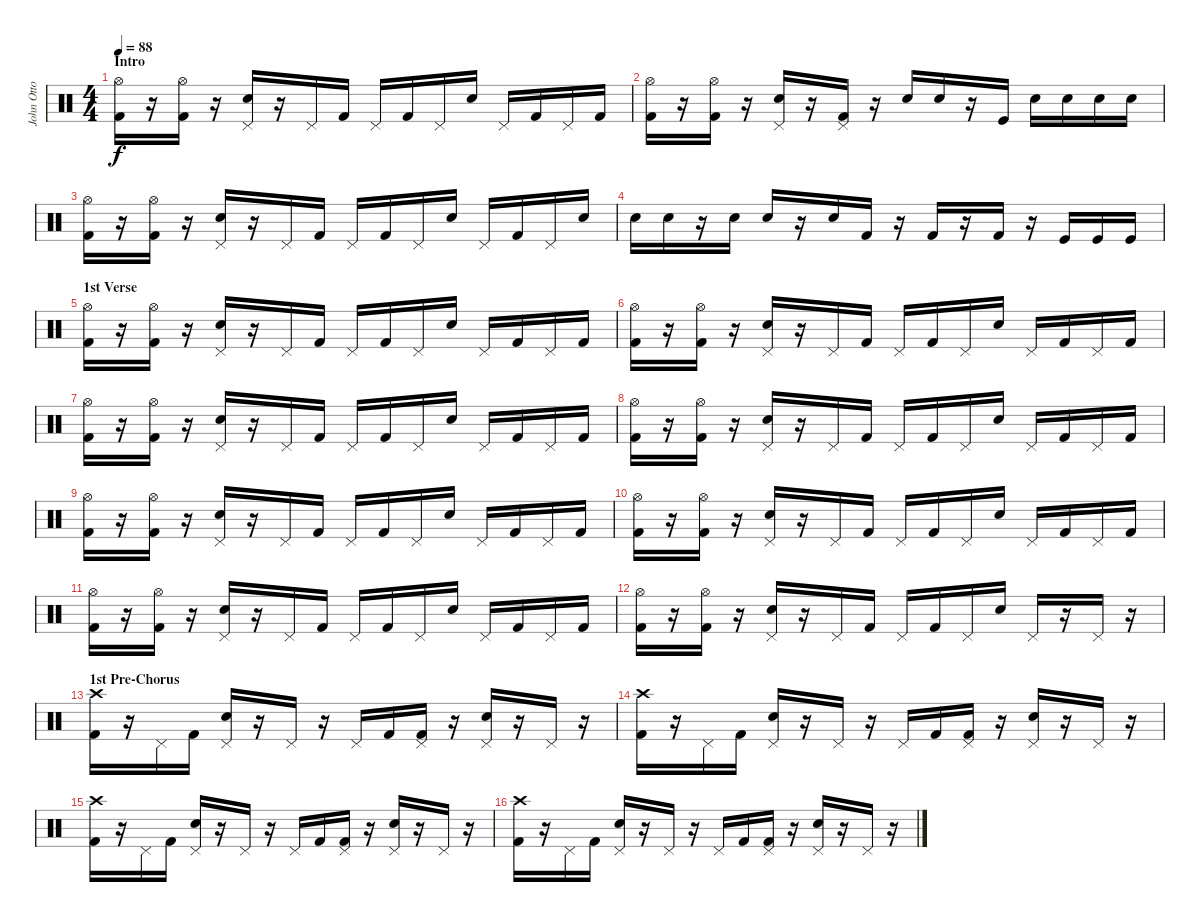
\track ("John Otto" "John Otto") {instrument percussion}
\staff {score}
\articulation defaults
\ts (4 4)
\section ("" "Intro")
\tempo 88
\clef neutral
\ks c
("Hi-Hat (open)" "Kick (hit) 2").16{dy f} r.16 ("Hi-Hat (open)" "Kick (hit) 2").16 r.16 ("Pedal Hi-Hat (hit)" "Snare (hit) 2").16 r.16 "Pedal Hi-Hat (hit)".16 "Kick (hit) 2".16 "Pedal Hi-Hat (hit)".16 "Kick (hit) 2".16 "Pedal Hi-Hat (hit)".16 "Snare (hit) 2".16 "Pedal Hi-Hat (hit)".16 "Kick (hit) 2".16 "Pedal Hi-Hat (hit)".16 "Kick (hit) 2".16 |
("Hi-Hat (open)" "Kick (hit) 2").16 r.16 ("Hi-Hat (open)" "Kick (hit) 2").16 r.16 ("Pedal Hi-Hat (hit)" "Snare (hit) 2").16 r.16 ("Pedal Hi-Hat (hit)" "Kick (hit) 2").16 r.16 "Snare (hit) 2".16 "Snare (hit) 2".16 r.16 "Kick (hit)".16 "Snare (hit) 2".16 "Snare (hit) 2".16 "Electric Snare (hit)".16 "Electric Snare (hit)".16 |
("Hi-Hat (open)" "Kick (hit) 2").16 r.16 ("Hi-Hat (open)" "Kick (hit) 2").16 r.16 ("Pedal Hi-Hat (hit)" "Snare (hit) 2").16 r.16 "Pedal Hi-Hat (hit)".16 "Kick (hit) 2".16 "Pedal Hi-Hat (hit)".16 "Kick (hit) 2".16 "Pedal Hi-Hat (hit)".16 "Snare (hit) 2".16 "Pedal Hi-Hat (hit)".16 "Kick (hit) 2".16 "Pedal Hi-Hat (hit)".16 "Snare (hit) 2".16 |
"Snare (hit) 2".16 "Snare (hit) 2".16 r.16 "Snare (hit) 2".16 "Snare (hit) 2".16 r.16 "Snare (hit) 2".16 "Kick (hit) 2".16 r.16 "Kick (hit) 2".16 r.16 "Kick (hit) 2".16 r.16 "Kick (hit)".16 "Kick (hit)".16 "Kick (hit)".16 |
\section ("" "1st Verse")
("Hi-Hat (open)" "Kick (hit) 2").16 r.16 ("Hi-Hat (open)" "Kick (hit) 2").16 r.16 ("Pedal Hi-Hat (hit)" "Snare (hit) 2").16 r.16 "Pedal Hi-Hat (hit)".16 "Kick (hit) 2".16 "Pedal Hi-Hat (hit)".16 "Kick (hit) 2".16 "Pedal Hi-Hat (hit)".16 "Snare (hit) 2".16 "Pedal Hi-Hat (hit)".16 "Kick (hit) 2".16 "Pedal Hi-Hat (hit)".16 "Kick (hit) 2".16 |
("Hi-Hat (open)" "Kick (hit) 2").16 r.16 ("Hi-Hat (open)" "Kick (hit) 2").16 r.16 ("Pedal Hi-Hat (hit)" "Snare (hit) 2").16 r.16 "Pedal Hi-Hat (hit)".16 "Kick (hit) 2".16 "Pedal Hi-Hat (hit)".16 "Kick (hit) 2".16 "Pedal Hi-Hat (hit)".16 "Snare (hit) 2".16 "Pedal Hi-Hat (hit)".16 "Kick (hit) 2".16 "Pedal Hi-Hat (hit)".16 "Kick (hit) 2".16 |
("Hi-Hat (open)" "Kick (hit) 2").16 r.16 ("Hi-Hat (open)" "Kick (hit) 2").16 r.16 ("Pedal Hi-Hat (hit)" "Snare (hit) 2").16 r.16 "Pedal Hi-Hat (hit)".16 "Kick (hit) 2".16 "Pedal Hi-Hat (hit)".16 "Kick (hit) 2".16 "Pedal Hi-Hat (hit)".16 "Snare (hit) 2".16 "Pedal Hi-Hat (hit)".16 "Kick (hit) 2".16 "Pedal Hi-Hat (hit)".16 "Kick (hit) 2".16 |
("Hi-Hat (open)" "Kick (hit) 2").16 r.16 ("Hi-Hat (open)" "Kick (hit) 2").16 r.16 ("Pedal Hi-Hat (hit)" "Snare (hit) 2").16 r.16 "Pedal Hi-Hat (hit)".16 "Kick (hit) 2".16 "Pedal Hi-Hat (hit)".16 "Kick (hit) 2".16 "Pedal Hi-Hat (hit)".16 "Snare (hit) 2".16 "Pedal Hi-Hat (hit)".16 "Kick (hit) 2".16 "Pedal Hi-Hat (hit)".16 "Kick (hit) 2".16 |
("Hi-Hat (open)" "Kick (hit) 2").16 r.16 ("Hi-Hat (open)" "Kick (hit) 2").16 r.16 ("Pedal Hi-Hat (hit)" "Snare (hit) 2").16 r.16 "Pedal Hi-Hat (hit)".16 "Kick (hit) 2".16 "Pedal Hi-Hat (hit)".16 "Kick (hit) 2".16 "Pedal Hi-Hat (hit)".16 "Snare (hit) 2".16 "Pedal Hi-Hat (hit)".16 "Kick (hit) 2".16 "Pedal Hi-Hat (hit)".16 "Kick (hit) 2".16 |
("Hi-Hat (open)" "Kick (hit) 2").16 r.16 ("Hi-Hat (open)" "Kick (hit) 2").16 r.16 ("Pedal Hi-Hat (hit)" "Snare (hit) 2").16 r.16 "Pedal Hi-Hat (hit)".16 "Kick (hit) 2".16 "Pedal Hi-Hat (hit)".16 "Kick (hit) 2".16 "Pedal Hi-Hat (hit)".16 "Snare (hit) 2".16 "Pedal Hi-Hat (hit)".16 "Kick (hit) 2".16 "Pedal Hi-Hat (hit)".16 "Kick (hit) 2".16 |
("Hi-Hat (open)" "Kick (hit) 2").16 r.16 ("Hi-Hat (open)" "Kick (hit) 2").16 r.16 ("Pedal Hi-Hat (hit)" "Snare (hit) 2").16 r.16 "Pedal Hi-Hat (hit)".16 "Kick (hit) 2".16 "Pedal Hi-Hat (hit)".16 "Kick (hit) 2".16 "Pedal Hi-Hat (hit)".16 "Snare (hit) 2".16 "Pedal Hi-Hat (hit)".16 "Kick (hit) 2".16 "Pedal Hi-Hat (hit)".16 "Kick (hit) 2".16 |
("Hi-Hat (open)" "Kick (hit) 2").16 r.16 ("Hi-Hat (open)" "Kick (hit) 2").16 r.16 ("Pedal Hi-Hat (hit)" "Snare (hit) 2").16 r.16 "Pedal Hi-Hat (hit)".16 "Kick (hit) 2".16 "Pedal Hi-Hat (hit)".16 "Kick (hit) 2".16 "Pedal Hi-Hat (hit)".16 "Snare (hit) 2".16 "Pedal Hi-Hat (hit)".16 r.16 "Pedal Hi-Hat (hit)".16 r.16 |
\section ("" "1st Pre-Chorus")
("Crash high (hit)" "Kick (hit) 2").16 r.16 "Pedal Hi-Hat (hit)".16 "Kick (hit) 2".16 ("Pedal Hi-Hat (hit)" "Snare (hit) 2").16 r.16 "Pedal Hi-Hat (hit)".16 r.16 "Pedal Hi-Hat (hit)".16 "Kick (hit) 2".16 ("Pedal Hi-Hat (hit)" "Kick (hit) 2").16 r.16 ("Pedal Hi-Hat (hit)" "Snare (hit) 2").16 r.16 "Pedal Hi-Hat (hit)".16 r.16 |
("Crash high (hit)" "Kick (hit) 2").16 r.16 "Pedal Hi-Hat (hit)".16 "Kick (hit) 2".16 ("Pedal Hi-Hat (hit)" "Snare (hit) 2").16 r.16 "Pedal Hi-Hat (hit)".16 r.16 "Pedal Hi-Hat (hit)".16 "Kick (hit) 2".16 ("Pedal Hi-Hat (hit)" "Kick (hit) 2").16 r.16 ("Pedal Hi-Hat (hit)" "Snare (hit) 2").16 r.16 "Pedal Hi-Hat (hit)".16 r.16 |
("Crash high (hit)" "Kick (hit) 2").16 r.16 "Pedal Hi-Hat (hit)".16 "Kick (hit) 2".16 ("Pedal Hi-Hat (hit)" "Snare (hit) 2").16 r.16 "Pedal Hi-Hat (hit)".16 r.16 "Pedal Hi-Hat (hit)".16 "Kick (hit) 2".16 ("Pedal Hi-Hat (hit)" "Kick (hit) 2").16 r.16 ("Pedal Hi-Hat (hit)" "Snare (hit) 2").16 r.16 "Pedal Hi-Hat (hit)".16 r.16 |
("Crash high (hit)" "Kick (hit) 2").16 r.16 "Pedal Hi-Hat (hit)".16 "Kick (hit) 2".16 ("Pedal Hi-Hat (hit)" "Snare (hit) 2").16 r.16 "Pedal Hi-Hat (hit)".16 r.16 "Pedal Hi-Hat (hit)".16 "Kick (hit) 2".16 ("Pedal Hi-Hat (hit)" "Kick (hit) 2").16 r.16 ("Pedal Hi-Hat (hit)" "Snare (hit) 2").16 r.16 "Pedal Hi-Hat (hit)".16 r.16
